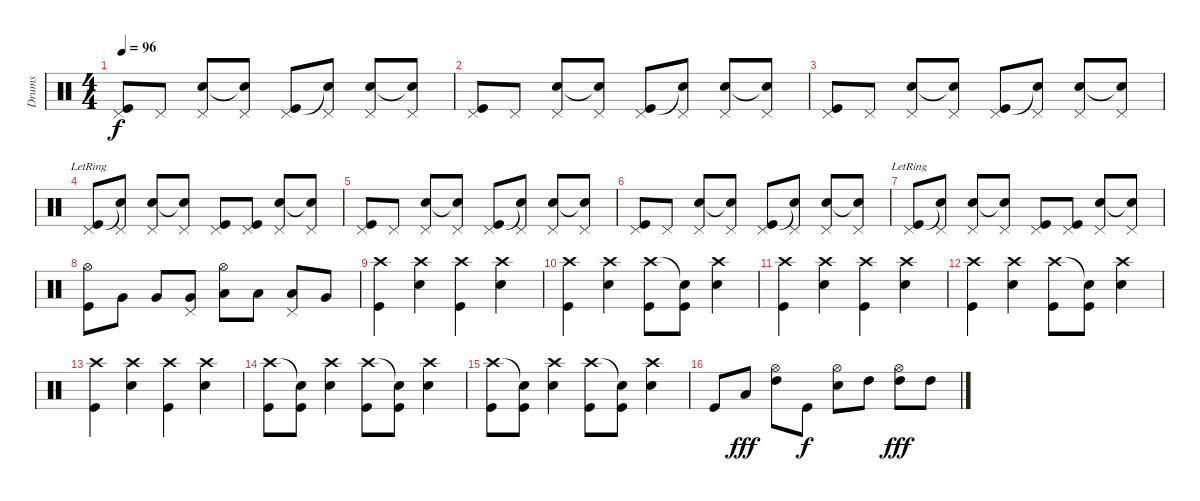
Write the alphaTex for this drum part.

\track ("Drums" "Drums") {instrument percussion}
\staff {score}
\articulation defaults
\ts (4 4)
\tempo 96
\clef neutral
\ks c
("Kick (hit)" "Pedal Hi-Hat (hit)").8{dy f} "Pedal Hi-Hat (hit)".8 ("Snare (hit) 2" "Pedal Hi-Hat (hit)").8 ("Snare (hit)"{t} "Pedal Hi-Hat (hit)").8 ("Kick (hit)" "Pedal Hi-Hat (hit)").8 ("Snare (hit)"{t} "Pedal Hi-Hat (hit)").8 ("Snare (hit) 2" "Pedal Hi-Hat (hit)").8 ("Snare (hit)"{t} "Pedal Hi-Hat (hit)").8 |
("Kick (hit)" "Pedal Hi-Hat (hit)").8 "Pedal Hi-Hat (hit)".8 ("Snare (hit) 2" "Pedal Hi-Hat (hit)").8 ("Snare (hit)"{t} "Pedal Hi-Hat (hit)").8 ("Kick (hit)" "Pedal Hi-Hat (hit)").8 ("Snare (hit)"{t} "Pedal Hi-Hat (hit)").8 ("Snare (hit) 2" "Pedal Hi-Hat (hit)").8 ("Snare (hit)"{t} "Pedal Hi-Hat (hit)").8 |
("Kick (hit)" "Pedal Hi-Hat (hit)").8 "Pedal Hi-Hat (hit)".8 ("Snare (hit) 2" "Pedal Hi-Hat (hit)").8 ("Snare (hit)"{t} "Pedal Hi-Hat (hit)").8 ("Kick (hit)" "Pedal Hi-Hat (hit)").8 ("Snare (hit)"{t} "Pedal Hi-Hat (hit)").8 ("Snare (hit) 2" "Pedal Hi-Hat (hit)").8 ("Snare (hit)"{t} "Pedal Hi-Hat (hit)").8 |
("Kick (hit)"{lr} "Pedal Hi-Hat (hit)").8 ("Snare (hit)"{t} "Pedal Hi-Hat (hit)").8 ("Snare (hit) 2" "Pedal Hi-Hat (hit)").8 ("Snare (hit)"{t} "Pedal Hi-Hat (hit)").8 ("Kick (hit)" "Pedal Hi-Hat (hit)").8 ("Kick (hit)" "Pedal Hi-Hat (hit)").8 ("Snare (hit) 2" "Pedal Hi-Hat (hit)").8 ("Snare (hit)"{t} "Pedal Hi-Hat (hit)").8 |
("Kick (hit)" "Pedal Hi-Hat (hit)").8 "Pedal Hi-Hat (hit)".8 ("Snare (hit) 2" "Pedal Hi-Hat (hit)").8 ("Snare (hit)"{t} "Pedal Hi-Hat (hit)").8 ("Kick (hit)" "Pedal Hi-Hat (hit)").8 ("Snare (hit)"{t} "Pedal Hi-Hat (hit)").8 ("Snare (hit) 2" "Pedal Hi-Hat (hit)").8 ("Snare (hit)"{t} "Pedal Hi-Hat (hit)").8 |
("Kick (hit)" "Pedal Hi-Hat (hit)").8 "Pedal Hi-Hat (hit)".8 ("Snare (hit) 2" "Pedal Hi-Hat (hit)").8 ("Snare (hit)"{t} "Pedal Hi-Hat (hit)").8 ("Kick (hit)" "Pedal Hi-Hat (hit)").8 ("Snare (hit)"{t} "Pedal Hi-Hat (hit)").8 ("Snare (hit) 2" "Pedal Hi-Hat (hit)").8 ("Snare (hit)"{t} "Pedal Hi-Hat (hit)").8 |
("Kick (hit)"{lr} "Pedal Hi-Hat (hit)").8 ("Snare (hit)"{t} "Pedal Hi-Hat (hit)").8 ("Snare (hit) 2" "Pedal Hi-Hat (hit)").8 ("Snare (hit)"{t} "Pedal Hi-Hat (hit)").8 ("Kick (hit)" "Pedal Hi-Hat (hit)").8 ("Kick (hit)" "Pedal Hi-Hat (hit)").8 ("Snare (hit) 2" "Pedal Hi-Hat (hit)").8 ("Snare (hit)"{t} "Pedal Hi-Hat (hit)").8 |
("Kick (hit)" "Hi-Hat (open)").8 "Very Low Tom (hit)".8 "Very Low Tom (hit)".8 ("Very Low Tom (hit)" "Pedal Hi-Hat (hit)").8 ("Low Tom (hit)" "Hi-Hat (open)").8 "Low Tom (hit)".8 ("Low Tom (hit)" "Pedal Hi-Hat (hit)").8 "Very Low Tom (hit)".8 |
("Kick (hit)" "Crash high (hit)").4 ("Snare (hit) 2" "Crash high (hit)").4 ("Kick (hit)" "Crash high (hit)").4 ("Snare (hit) 2" "Crash high (hit)").4 |
("Kick (hit)" "Crash high (hit)").4 ("Snare (hit) 2" "Crash high (hit)").4 ("Kick (hit)" "Crash high (hit)").8 ("Kick (hit)" "Snare (hit)"{t}).8 ("Snare (hit) 2" "Crash high (hit)").4 |
("Kick (hit)" "Crash high (hit)").4 ("Snare (hit) 2" "Crash high (hit)").4 ("Kick (hit)" "Crash high (hit)").4 ("Snare (hit) 2" "Crash high (hit)").4 |
("Kick (hit)" "Crash high (hit)").4 ("Snare (hit) 2" "Crash high (hit)").4 ("Kick (hit)" "Crash high (hit)").8 ("Kick (hit)" "Snare (hit)"{t}).8 ("Snare (hit) 2" "Crash high (hit)").4 |
("Kick (hit)" "Crash high (hit)").4 ("Snare (hit) 2" "Crash high (hit)").4 ("Kick (hit)" "Crash high (hit)").4 ("Snare (hit) 2" "Crash high (hit)").4 |
("Kick (hit)" "Crash high (hit)").8 ("Kick (hit)" "Snare (hit)"{t}).8 ("Snare (hit) 2" "Crash high (hit)").4 ("Kick (hit)" "Crash high (hit)").8 ("Kick (hit)" "Snare (hit)"{t}).8 ("Snare (hit) 2" "Crash high (hit)").4 |
("Kick (hit)" "Crash high (hit)").8 ("Kick (hit)" "Snare (hit)"{t}).8 ("Snare (hit) 2" "Crash high (hit)").4 ("Kick (hit)" "Crash high (hit)").8 ("Kick (hit)" "Snare (hit)"{t}).8 ("Snare (hit) 2" "Crash high (hit)").4 |
"Kick (hit)".8 "Low Tom (hit)".8{dy fff} ("High Tom (hit)" "Hi-Hat (open)").8 "Kick (hit)".8{dy f} ("Snare (hit) 2" "Hi-Hat (open)").8 "High Tom (hit)".8 ("High Tom (hit)" "Hi-Hat (open)").8{dy fff} "High Tom (hit)".8
